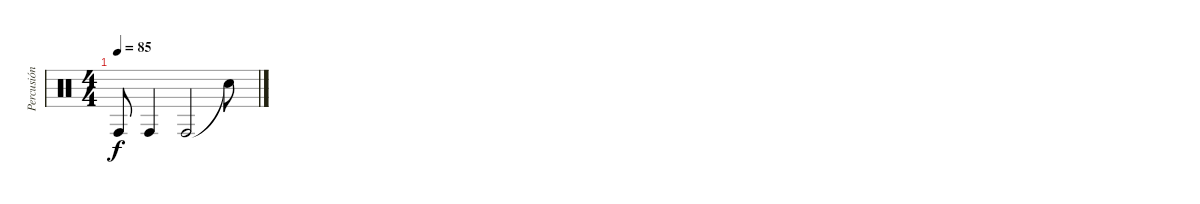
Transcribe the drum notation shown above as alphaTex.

\track ("Percusión" "Percusión") {instrument percussion}
\staff {score}
\articulation defaults
\ts (4 4)
\tempo 85
\clef neutral
\ks c "Conga high (hit)".8{dy f} "Conga high (hit)".4 "Conga high (hit)".2 "Snare (hit)"{t}.8
